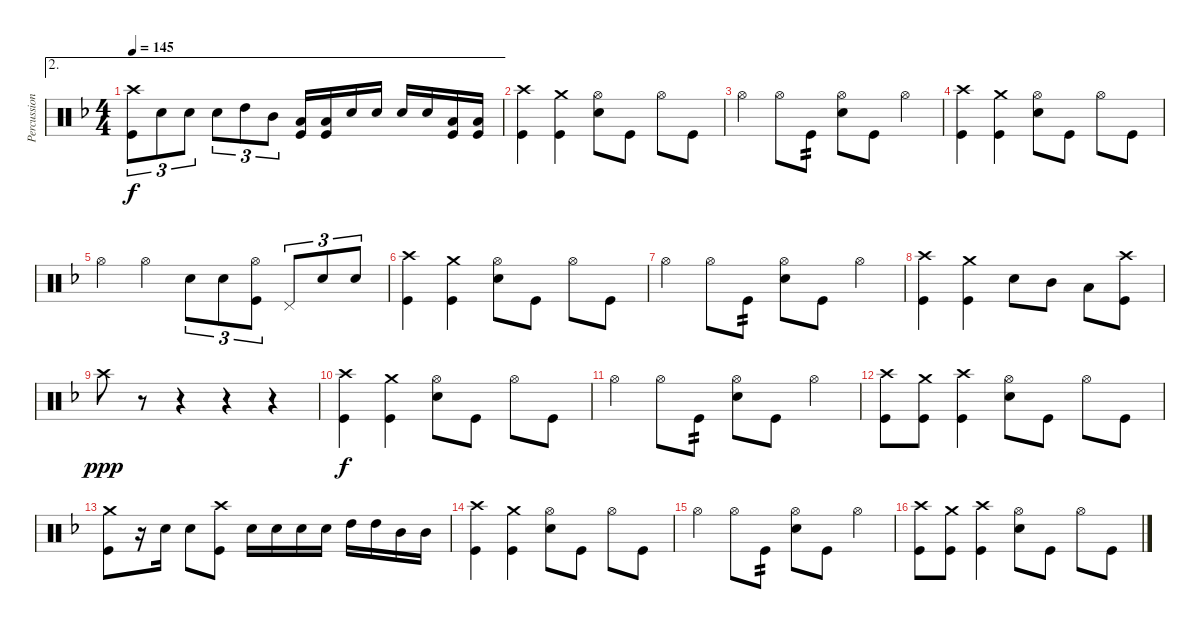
\track ("Percussion" "Percussion") {instrument percussion}
\staff {score}
\articulation defaults
\ae 2
\ts (4 4)
\tempo 145
\clef neutral
\ks f
("Crash high (hit)" "Kick (hit)").8{tu (3 2) dy f} "Electric Snare (hit)".8{tu (3 2)} "Electric Snare (hit)".8{tu (3 2)} "Electric Snare (hit)".8{tu (3 2)} "High Tom (hit)".8{tu (3 2)} "Mid Tom (hit)".8{tu (3 2)} ("Low Tom (hit)" "Kick (hit)").16 ("Low Tom (hit)" "Kick (hit)").16 "Electric Snare (hit)".16 "Electric Snare (hit)".16 "Electric Snare (hit)".16 "Electric Snare (hit)".16 ("Low Tom (hit)" "Kick (hit)").16 ("Low Tom (hit)" "Kick (hit)").16 |
("Crash high (hit)" "Kick (hit)").4 ("Crash medium (hit)" "Kick (hit)").4 ("Hi-Hat (open)" "Electric Snare (hit)").8 "Kick (hit)".8 "Hi-Hat (open)".8 "Kick (hit)".8 |
"Hi-Hat (open)".4 "Hi-Hat (open)".8 "Kick (hit)".8{tp 2} ("Hi-Hat (open)" "Electric Snare (hit)").8 "Kick (hit)".8 "Hi-Hat (open)".4 |
("Crash high (hit)" "Kick (hit)").4 ("Crash medium (hit)" "Kick (hit)").4 ("Hi-Hat (open)" "Electric Snare (hit)").8 "Kick (hit)".8 "Hi-Hat (open)".8 "Kick (hit)".8 |
"Hi-Hat (open)".4 "Hi-Hat (open)".4 "Electric Snare (hit)".8{tu (3 2)} "Electric Snare (hit)".8{tu (3 2)} ("Hi-Hat (open)" "Kick (hit)").8{tu (3 2)} "Pedal Hi-Hat (hit)".8{tu (3 2)} "Electric Snare (hit)".8{tu (3 2)} "Electric Snare (hit)".8{tu (3 2)} |
("Crash high (hit)" "Kick (hit)").4 ("Crash medium (hit)" "Kick (hit)").4 ("Hi-Hat (open)" "Electric Snare (hit)").8 "Kick (hit)".8 "Hi-Hat (open)".8 "Kick (hit)".8 |
"Hi-Hat (open)".4 "Hi-Hat (open)".8 "Kick (hit)".8{tp 2} ("Hi-Hat (open)" "Electric Snare (hit)").8 "Kick (hit)".8 "Hi-Hat (open)".4 |
("Crash high (hit)" "Kick (hit)").4 ("Crash medium (hit)" "Kick (hit)").4 "Electric Snare (hit)".8 "Mid Tom (hit)".8 "Low Tom (hit)".8 ("Crash high (hit)" "Kick (hit)").8 |
"Crash high (hit)".8{dy ppp} r.8 r.4 r.4 r.4 |
("Crash high (hit)" "Kick (hit)").4{dy f} ("Crash medium (hit)" "Kick (hit)").4 ("Hi-Hat (open)" "Electric Snare (hit)").8 "Kick (hit)".8 "Hi-Hat (open)".8 "Kick (hit)".8 |
"Hi-Hat (open)".4 "Hi-Hat (open)".8 "Kick (hit)".8{tp 2} ("Hi-Hat (open)" "Electric Snare (hit)").8 "Kick (hit)".8 "Hi-Hat (open)".4 |
("Crash high (hit)" "Kick (hit)").8 ("Crash medium (hit)" "Kick (hit)").8 ("Crash high (hit)" "Kick (hit)").4 ("Hi-Hat (open)" "Electric Snare (hit)").8 "Kick (hit)".8 "Hi-Hat (open)".8 "Kick (hit)".8 |
("Crash medium (hit)" "Kick (hit)").8 r.16 "Electric Snare (hit)".16 "Electric Snare (hit)".8 ("Crash high (hit)" "Kick (hit)").8 "Electric Snare (hit)".16 "Electric Snare (hit)".16 "Electric Snare (hit)".16 "Electric Snare (hit)".16 "High Tom (hit)".16 "High Tom (hit)".16 "Mid Tom (hit)".16 "Mid Tom (hit)".16 |
("Crash high (hit)" "Kick (hit)").4 ("Crash medium (hit)" "Kick (hit)").4 ("Hi-Hat (open)" "Electric Snare (hit)").8 "Kick (hit)".8 "Hi-Hat (open)".8 "Kick (hit)".8 |
"Hi-Hat (open)".4 "Hi-Hat (open)".8 "Kick (hit)".8{tp 2} ("Hi-Hat (open)" "Electric Snare (hit)").8 "Kick (hit)".8 "Hi-Hat (open)".4 |
("Crash high (hit)" "Kick (hit)").8 ("Crash medium (hit)" "Kick (hit)").8 ("Crash high (hit)" "Kick (hit)").4 ("Hi-Hat (open)" "Electric Snare (hit)").8 "Kick (hit)".8 "Hi-Hat (open)".8 "Kick (hit)".8
